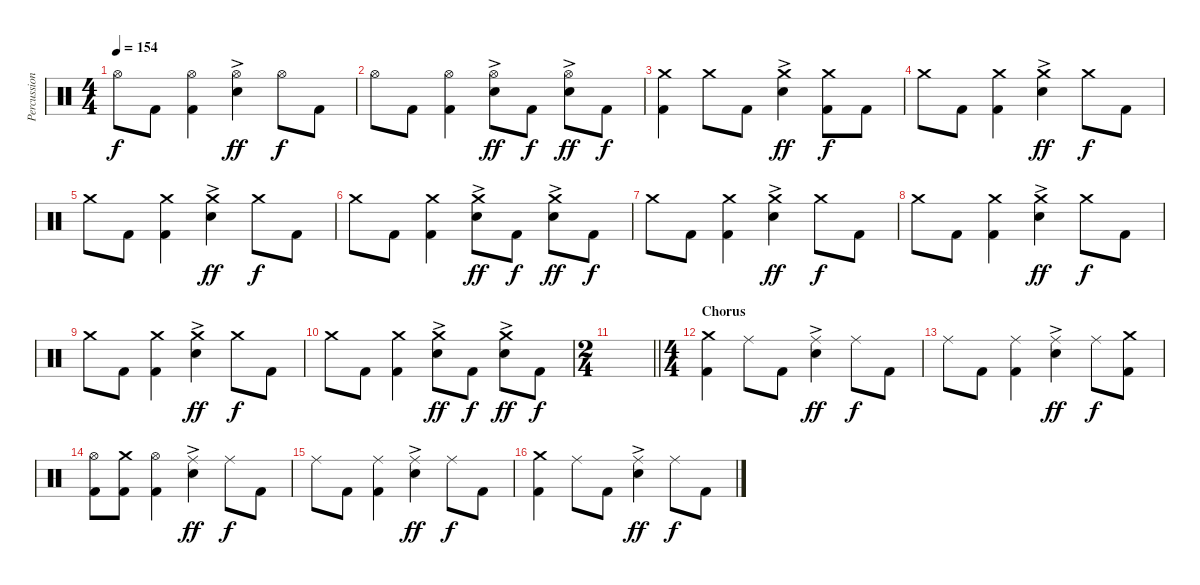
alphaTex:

\track ("Percussion" "Percussion") {instrument percussion}
\staff {score}
\articulation defaults
\ts (4 4)
\tempo 154
\clef neutral
\ks c "Hi-Hat (open)".8{dy f} "Kick (hit) 2".8
("Hi-Hat (open)" "Kick (hit) 2").4 ("Hi-Hat (open)" "Electric Snare (hit)"{ac}).4{dy ff} "Hi-Hat (open)".8{dy f} "Kick (hit) 2".8 |
"Hi-Hat (open)".8 "Kick (hit) 2".8 ("Hi-Hat (open)" "Kick (hit) 2").4 ("Hi-Hat (open)" "Electric Snare (hit)"{ac}).8{dy ff} "Kick (hit) 2".8{dy f} ("Hi-Hat (open)" "Electric Snare (hit)"{ac}).8{dy ff} "Kick (hit) 2".8{dy f} |
("Crash medium (hit)" "Kick (hit) 2").4 "Crash medium (hit)".8 "Kick (hit) 2".8 ("Crash medium (hit)" "Electric Snare (hit)"{ac}).4{dy ff} ("Crash medium (hit)" "Kick (hit) 2").8{dy f} "Kick (hit) 2".8 |
"Crash medium (hit)".8 "Kick (hit) 2".8 ("Crash medium (hit)" "Kick (hit) 2").4 ("Crash medium (hit)" "Electric Snare (hit)"{ac}).4{dy ff} "Crash medium (hit)".8{dy f} "Kick (hit) 2".8 |
"Crash medium (hit)".8 "Kick (hit) 2".8 ("Crash medium (hit)" "Kick (hit) 2").4 ("Crash medium (hit)" "Electric Snare (hit)"{ac}).4{dy ff} "Crash medium (hit)".8{dy f} "Kick (hit) 2".8 |
"Crash medium (hit)".8 "Kick (hit) 2".8 ("Crash medium (hit)" "Kick (hit) 2").4 ("Crash medium (hit)" "Electric Snare (hit)"{ac}).8{dy ff} "Kick (hit) 2".8{dy f} ("Crash medium (hit)" "Electric Snare (hit)"{ac}).8{dy ff} "Kick (hit) 2".8{dy f} |
"Crash medium (hit)".8 "Kick (hit) 2".8 ("Crash medium (hit)" "Kick (hit) 2").4 ("Crash medium (hit)" "Electric Snare (hit)"{ac}).4{dy ff} "Crash medium (hit)".8{dy f} "Kick (hit) 2".8 |
"Crash medium (hit)".8 "Kick (hit) 2".8 ("Crash medium (hit)" "Kick (hit) 2").4 ("Crash medium (hit)" "Electric Snare (hit)"{ac}).4{dy ff} "Crash medium (hit)".8{dy f} "Kick (hit) 2".8 |
"Crash medium (hit)".8 "Kick (hit) 2".8 ("Crash medium (hit)" "Kick (hit) 2").4 ("Crash medium (hit)" "Electric Snare (hit)"{ac}).4{dy ff} "Crash medium (hit)".8{dy f} "Kick (hit) 2".8 |
"Crash medium (hit)".8 "Kick (hit) 2".8 ("Crash medium (hit)" "Kick (hit) 2").4 ("Crash medium (hit)" "Electric Snare (hit)"{ac}).8{dy ff} "Kick (hit) 2".8{dy f} ("Crash medium (hit)" "Electric Snare (hit)"{ac}).8{dy ff} "Kick (hit) 2".8{dy f} |
\ts (2 4)
\barLineRight lightlight
|
\ts (4 4)
\section ("" "Chorus")
("Crash medium (hit)" "Kick (hit) 2").4 "Ride (middle)".8 "Kick (hit) 2".8 ("Ride (middle)" "Electric Snare (hit)"{ac}).4{dy ff} "Ride (middle)".8{dy f} "Kick (hit) 2".8 |
"Ride (middle)".8 "Kick (hit) 2".8 ("Ride (middle)" "Kick (hit) 2").4 ("Ride (middle)" "Electric Snare (hit)"{ac}).4{dy ff} "Ride (middle)".8{dy f} ("Crash medium (hit)" "Kick (hit) 2").8 |
("Hi-Hat (open)" "Kick (hit) 2").8 ("Crash medium (hit)" "Kick (hit) 2").8 ("Hi-Hat (open)" "Kick (hit) 2").4 ("Ride (middle)" "Electric Snare (hit)"{ac}).4{dy ff} "Ride (middle)".8{dy f} "Kick (hit) 2".8 |
"Ride (middle)".8 "Kick (hit) 2".8 ("Ride (middle)" "Kick (hit) 2").4 ("Ride (middle)" "Electric Snare (hit)"{ac}).4{dy ff} "Ride (middle)".8{dy f} "Kick (hit) 2".8 |
("Crash medium (hit)" "Kick (hit) 2").4 "Ride (middle)".8 "Kick (hit) 2".8 ("Ride (middle)" "Electric Snare (hit)"{ac}).4{dy ff} "Ride (middle)".8{dy f} "Kick (hit) 2".8
